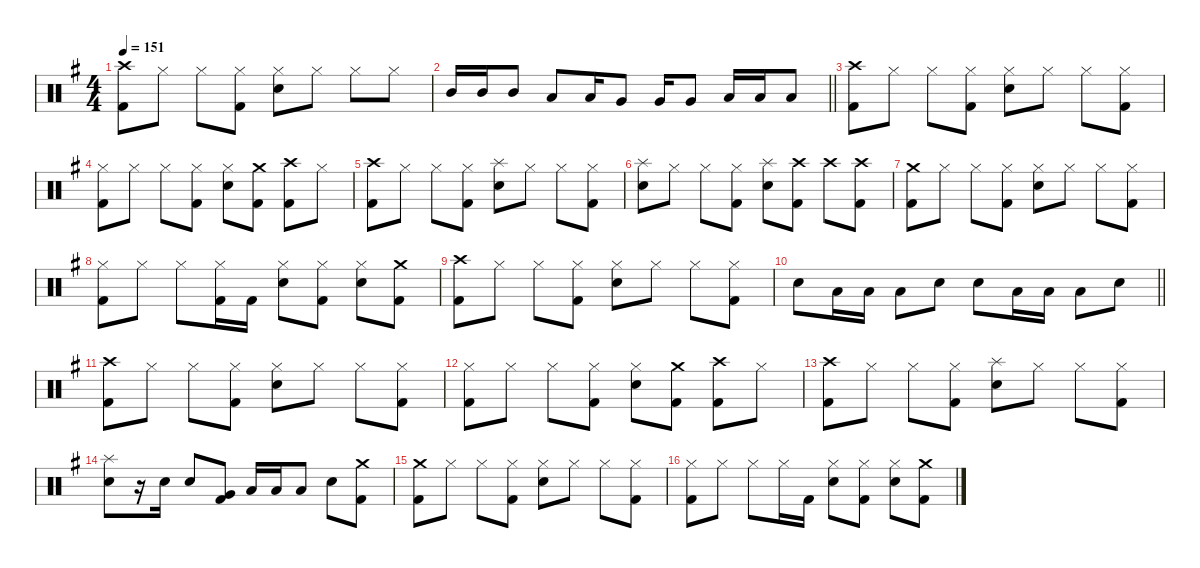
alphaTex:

\defaultSystemsLayout 4
\hideDynamics
\bracketExtendMode nobrackets
\singleTrackTrackNamePolicy hidden
\multiTrackTrackNamePolicy hidden
\otherSystemsTrackNameOrientation horizontal
\track ("Lars Ulrich" "drm.") {instrument percussion}
\staff {score}
\articulation defaults
\ts (4 4)
\tempo 151
\clef neutral
\ks eminor
("Crash high (hit)"{acc forcenatural} "Kick (hit) 2"{acc forcenatural}).8{dy f beam Down} "Hi-Hat (closed)"{acc forcenatural}.8{beam Down} "Hi-Hat (closed)"{acc forcenatural}.8{beam Down} ("Hi-Hat (closed)"{acc forcenatural} "Kick (hit) 2"{acc forcenatural}).8{beam Down} ("Hi-Hat (closed)"{acc forcenatural} "Snare (hit) 2"{acc forcenatural}).8{beam Down} "Hi-Hat (closed)"{acc forcenatural}.8{beam Down} "Hi-Hat (closed)"{acc forcenatural}.8{beam Down} "Hi-Hat (closed)"{acc forcenatural}.8{beam Down} |
\barLineRight lightlight "Mid Tom (hit)"{acc forcenatural}.16{beam Up} "Mid Tom (hit)"{acc forcenatural}.16{beam Up} "Mid Tom (hit)"{acc forcenatural}.8{beam Up} "Low Tom (hit)"{acc forcenatural}.8{beam Up} "Low Tom (hit)"{acc forcenatural}.16{beam Up} "Very Low Tom (hit)"{acc forcenatural}.8{beam Up} "Very Low Tom (hit)"{acc forcenatural}.16{beam Up} "Very Low Tom (hit)"{acc forcenatural}.8{beam Up} "Low Floor Tom (hit)"{acc forcenatural}.16{beam Up} "Low Floor Tom (hit)"{acc forcenatural}.16{beam Up} "Low Floor Tom (hit)"{acc forcenatural}.8{beam Up}
|
("Crash high (hit)"{acc forcenatural} "Kick (hit) 2"{acc forcenatural}).8{beam Down} "Hi-Hat (closed)"{acc forcenatural}.8{beam Down} "Hi-Hat (closed)"{acc forcenatural}.8{beam Down} ("Hi-Hat (closed)"{acc forcenatural} "Kick (hit) 2"{acc forcenatural}).8{beam Down} ("Hi-Hat (closed)"{acc forcenatural} "Snare (hit) 2"{acc forcenatural}).8{beam Down} "Hi-Hat (closed)"{acc forcenatural}.8{beam Down} "Hi-Hat (closed)"{acc forcenatural}.8{beam Down} ("Hi-Hat (closed)"{acc forcenatural} "Kick (hit) 2"{acc forcenatural}).8{beam Down} |
("Hi-Hat (closed)"{acc forcenatural} "Kick (hit) 2"{acc forcenatural}).8{beam Down} "Hi-Hat (closed)"{acc forcenatural}.8{beam Down} "Hi-Hat (closed)"{acc forcenatural}.8{beam Down} ("Hi-Hat (closed)"{acc forcenatural} "Kick (hit) 2"{acc forcenatural}).8{beam Down} ("Hi-Hat (closed)"{acc forcenatural} "Snare (hit) 2"{acc forcenatural}).8{beam Down} ("Crash medium (hit)"{acc forcenatural} "Kick (hit) 2"{acc forcenatural}).8{beam Down} ("Crash high (hit)"{acc forcenatural} "Kick (hit) 2"{acc forcenatural}).8{beam Down} "Hi-Hat (closed)"{acc forcenatural}.8{beam Down} |
("Crash high (hit)"{acc forcenatural} "Kick (hit) 2"{acc forcenatural}).8{beam Down} "Hi-Hat (closed)"{acc forcenatural}.8{beam Down} "Hi-Hat (closed)"{acc forcenatural}.8{beam Down} ("Hi-Hat (closed)"{acc forcenatural} "Kick (hit) 2"{acc forcenatural}).8{beam Down} ("Splash (hit)"{acc forcenatural} "Snare (hit) 2"{acc forcenatural}).8{beam Down} "Hi-Hat (closed)"{acc forcenatural}.8{beam Down} "Hi-Hat (closed)"{acc forcenatural}.8{beam Down} ("Hi-Hat (closed)"{acc forcenatural} "Kick (hit) 2"{acc forcenatural}).8{beam Down} |
("Splash (hit)"{acc forcenatural} "Snare (hit) 2"{acc forcenatural}).8{beam Down} "Hi-Hat (closed)"{acc forcenatural}.8{beam Down} "Hi-Hat (closed)"{acc forcenatural}.8{beam Down} ("Hi-Hat (closed)"{acc forcenatural} "Kick (hit) 2"{acc forcenatural}).8{beam Down} ("Splash (hit)"{acc forcenatural} "Snare (hit) 2"{acc forcenatural}).8{beam Down} ("Crash high (hit)"{acc forcenatural} "Kick (hit) 2"{acc forcenatural}).8{beam Down} "Crash high (hit)"{acc forcenatural}.8{beam Down} ("Crash high (hit)"{acc forcenatural} "Kick (hit) 2"{acc forcenatural}).8{beam Down} |
("Crash medium (hit)"{acc forcenatural} "Kick (hit) 2"{acc forcenatural}).8{beam Down} "Hi-Hat (closed)"{acc forcenatural}.8{beam Down} "Hi-Hat (closed)"{acc forcenatural}.8{beam Down} ("Hi-Hat (closed)"{acc forcenatural} "Kick (hit) 2"{acc forcenatural}).8{beam Down} ("Hi-Hat (closed)"{acc forcenatural} "Snare (hit) 2"{acc forcenatural}).8{beam Down} "Hi-Hat (closed)"{acc forcenatural}.8{beam Down} "Hi-Hat (closed)"{acc forcenatural}.8{beam Down} ("Hi-Hat (closed)"{acc forcenatural} "Kick (hit) 2"{acc forcenatural}).8{beam Down} |
("Hi-Hat (closed)"{acc forcenatural} "Kick (hit) 2"{acc forcenatural}).8{beam Down} "Hi-Hat (closed)"{acc forcenatural}.8{beam Down} "Hi-Hat (closed)"{acc forcenatural}.8{beam Down} ("Hi-Hat (closed)"{acc forcenatural} "Kick (hit) 2"{acc forcenatural}).16{beam Down} "Kick (hit) 2"{acc forcenatural}.16{beam Down} ("Hi-Hat (closed)"{acc forcenatural} "Snare (hit) 2"{acc forcenatural}).8{beam Down} ("Hi-Hat (closed)"{acc forcenatural} "Kick (hit) 2"{acc forcenatural}).8{beam Down} ("Hi-Hat (closed)"{acc forcenatural} "Snare (hit) 2"{acc forcenatural}).8{beam Down} ("Crash medium (hit)"{acc forcenatural} "Kick (hit) 2"{acc forcenatural}).8{beam Down} |
("Crash high (hit)"{acc forcenatural} "Kick (hit) 2"{acc forcenatural}).8{beam Down} "Hi-Hat (closed)"{acc forcenatural}.8{beam Down} "Hi-Hat (closed)"{acc forcenatural}.8{beam Down} ("Hi-Hat (closed)"{acc forcenatural} "Kick (hit) 2"{acc forcenatural}).8{beam Down} ("Hi-Hat (closed)"{acc forcenatural} "Snare (hit) 2"{acc forcenatural}).8{beam Down} "Hi-Hat (closed)"{acc forcenatural}.8{beam Down} "Hi-Hat (closed)"{acc forcenatural}.8{beam Down} ("Hi-Hat (closed)"{acc forcenatural} "Kick (hit) 2"{acc forcenatural}).8{beam Down} |
\barLineRight lightlight "Snare (hit) 2"{acc forcenatural}.8{beam Down} "Low Tom (hit)"{acc forcenatural}.16{beam Down} "Low Tom (hit)"{acc forcenatural}.16{beam Down} "Low Tom (hit)"{acc forcenatural}.8{beam Down} "Snare (hit) 2"{acc forcenatural}.8{beam Down} "Snare (hit) 2"{acc forcenatural}.8{beam Down} "Low Tom (hit)"{acc forcenatural}.16{beam Down} "Low Tom (hit)"{acc forcenatural}.16{beam Down} "Low Tom (hit)"{acc forcenatural}.8{beam Down} "Snare (hit) 2"{acc forcenatural}.8{beam Down}
|
("Crash high (hit)"{acc forcenatural} "Kick (hit) 2"{acc forcenatural}).8{beam Down} "Hi-Hat (closed)"{acc forcenatural}.8{beam Down} "Hi-Hat (closed)"{acc forcenatural}.8{beam Down} ("Hi-Hat (closed)"{acc forcenatural} "Kick (hit) 2"{acc forcenatural}).8{beam Down} ("Hi-Hat (closed)"{acc forcenatural} "Snare (hit) 2"{acc forcenatural}).8{beam Down} "Hi-Hat (closed)"{acc forcenatural}.8{beam Down} "Hi-Hat (closed)"{acc forcenatural}.8{beam Down} ("Hi-Hat (closed)"{acc forcenatural} "Kick (hit) 2"{acc forcenatural}).8{beam Down} |
("Hi-Hat (closed)"{acc forcenatural} "Kick (hit) 2"{acc forcenatural}).8{beam Down} "Hi-Hat (closed)"{acc forcenatural}.8{beam Down} "Hi-Hat (closed)"{acc forcenatural}.8{beam Down} ("Hi-Hat (closed)"{acc forcenatural} "Kick (hit) 2"{acc forcenatural}).8{beam Down} ("Hi-Hat (closed)"{acc forcenatural} "Snare (hit) 2"{acc forcenatural}).8{beam Down} ("Crash medium (hit)"{acc forcenatural} "Kick (hit) 2"{acc forcenatural}).8{beam Down} ("Crash high (hit)"{acc forcenatural} "Kick (hit) 2"{acc forcenatural}).8{beam Down} "Hi-Hat (closed)"{acc forcenatural}.8{beam Down} |
("Crash high (hit)"{acc forcenatural} "Kick (hit) 2"{acc forcenatural}).8{beam Down} "Hi-Hat (closed)"{acc forcenatural}.8{beam Down} "Hi-Hat (closed)"{acc forcenatural}.8{beam Down} ("Hi-Hat (closed)"{acc forcenatural} "Kick (hit) 2"{acc forcenatural}).8{beam Down} ("Splash (hit)"{acc forcenatural} "Snare (hit) 2"{acc forcenatural}).8{beam Down} "Hi-Hat (closed)"{acc forcenatural}.8{beam Down} "Hi-Hat (closed)"{acc forcenatural}.8{beam Down} ("Hi-Hat (closed)"{acc forcenatural} "Kick (hit) 2"{acc forcenatural}).8{beam Down} |
("Splash (hit)"{acc forcenatural} "Snare (hit) 2"{acc forcenatural}).8{beam Down} r.16{beam Down} "Snare (hit) 2"{acc forcenatural}.16{beam Down} "Snare (hit) 2"{acc forcenatural}.8{beam Up} ("Very Low Tom (hit)"{acc forcenatural} "Kick (hit) 2"{acc forcenatural}).8{beam Up} "Low Tom (hit)"{acc forcenatural}.16{beam Up} "Low Tom (hit)"{acc forcenatural}.16{beam Up} "Low Tom (hit)"{acc forcenatural}.8{beam Up} "Snare (hit) 2"{acc forcenatural}.8{beam Down} ("Crash medium (hit)"{acc forcenatural} "Kick (hit) 2"{acc forcenatural}).8{beam Down} |
("Crash medium (hit)"{acc forcenatural} "Kick (hit) 2"{acc forcenatural}).8{beam Down} "Hi-Hat (closed)"{acc forcenatural}.8{beam Down} "Hi-Hat (closed)"{acc forcenatural}.8{beam Down} ("Hi-Hat (closed)"{acc forcenatural} "Kick (hit) 2"{acc forcenatural}).8{beam Down} ("Hi-Hat (closed)"{acc forcenatural} "Snare (hit) 2"{acc forcenatural}).8{beam Down} "Hi-Hat (closed)"{acc forcenatural}.8{beam Down} "Hi-Hat (closed)"{acc forcenatural}.8{beam Down} ("Hi-Hat (closed)"{acc forcenatural} "Kick (hit) 2"{acc forcenatural}).8{beam Down} |
("Hi-Hat (closed)"{acc forcenatural} "Kick (hit) 2"{acc forcenatural}).8{beam Down} "Hi-Hat (closed)"{acc forcenatural}.8{beam Down} "Hi-Hat (closed)"{acc forcenatural}.8{beam Down} "Hi-Hat (closed)"{acc forcenatural}.16{beam Down} "Kick (hit) 2"{acc forcenatural}.16{beam Down} ("Hi-Hat (closed)"{acc forcenatural} "Snare (hit) 2"{acc forcenatural}).8{beam Down} ("Hi-Hat (closed)"{acc forcenatural} "Kick (hit) 2"{acc forcenatural}).8{beam Down} ("Hi-Hat (closed)"{acc forcenatural} "Snare (hit) 2"{acc forcenatural}).8{beam Down} ("Crash medium (hit)"{acc forcenatural} "Kick (hit) 2"{acc forcenatural}).8{beam Down}
